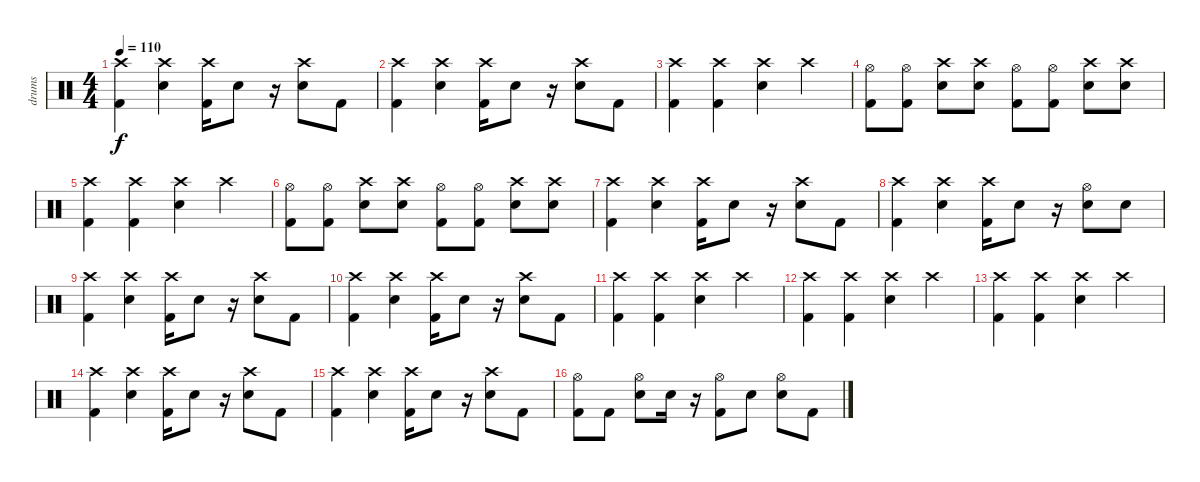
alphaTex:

\track ("drums" "drums") {instrument percussion}
\staff {score}
\articulation defaults
\ts (4 4)
\tempo 110
\clef neutral
\ks c
("Crash high (hit)" "Kick (hit) 2").4{dy f} ("Crash high (hit)" "Snare (hit) 2").4 ("Crash high (hit)" "Kick (hit) 2").16 "Snare (hit) 2".8 r.16 ("Crash high (hit)" "Snare (hit) 2").8 "Kick (hit) 2".8 |
("Crash high (hit)" "Kick (hit) 2").4 ("Crash high (hit)" "Snare (hit) 2").4 ("Crash high (hit)" "Kick (hit) 2").16 "Snare (hit) 2".8 r.16 ("Crash high (hit)" "Snare (hit) 2").8 "Kick (hit) 2".8 |
("Crash high (hit)" "Kick (hit) 2").4 ("Crash high (hit)" "Kick (hit) 2").4 ("Crash high (hit)" "Snare (hit) 2").4 "Crash high (hit)".4 |
("Hi-Hat (open)" "Kick (hit) 2").8 ("Hi-Hat (open)" "Kick (hit) 2").8 ("Crash high (hit)" "Snare (hit) 2").8 ("Crash high (hit)" "Snare (hit) 2").8 ("Hi-Hat (open)" "Kick (hit) 2").8 ("Hi-Hat (open)" "Kick (hit) 2").8 ("Crash high (hit)" "Snare (hit) 2").8 ("Crash high (hit)" "Snare (hit) 2").8 |
("Crash high (hit)" "Kick (hit) 2").4 ("Crash high (hit)" "Kick (hit) 2").4 ("Crash high (hit)" "Snare (hit) 2").4 "Crash high (hit)".4 |
("Hi-Hat (open)" "Kick (hit) 2").8 ("Hi-Hat (open)" "Kick (hit) 2").8 ("Crash high (hit)" "Snare (hit) 2").8 ("Crash high (hit)" "Snare (hit) 2").8 ("Hi-Hat (open)" "Kick (hit) 2").8 ("Hi-Hat (open)" "Kick (hit) 2").8 ("Crash high (hit)" "Snare (hit) 2").8 ("Crash high (hit)" "Snare (hit) 2").8 |
("Crash high (hit)" "Kick (hit) 2").4 ("Crash high (hit)" "Snare (hit) 2").4 ("Crash high (hit)" "Kick (hit) 2").16 "Snare (hit) 2".8 r.16 ("Crash high (hit)" "Snare (hit) 2").8 "Kick (hit) 2".8 |
("Crash high (hit)" "Kick (hit) 2").4 ("Crash high (hit)" "Snare (hit) 2").4 ("Crash high (hit)" "Kick (hit) 2").16 "Snare (hit) 2".8 r.16 ("Hi-Hat (open)" "Snare (hit) 2").8 "Snare (hit) 2".8 |
("Crash high (hit)" "Kick (hit) 2").4 ("Crash high (hit)" "Snare (hit) 2").4 ("Crash high (hit)" "Kick (hit) 2").16 "Snare (hit) 2".8 r.16 ("Crash high (hit)" "Snare (hit) 2").8 "Kick (hit) 2".8 |
("Crash high (hit)" "Kick (hit) 2").4 ("Crash high (hit)" "Snare (hit) 2").4 ("Crash high (hit)" "Kick (hit) 2").16 "Snare (hit) 2".8 r.16 ("Crash high (hit)" "Snare (hit) 2").8 "Kick (hit) 2".8 |
("Crash high (hit)" "Kick (hit) 2").4 ("Crash high (hit)" "Kick (hit) 2").4 ("Crash high (hit)" "Snare (hit) 2").4 "Crash high (hit)".4 |
("Crash high (hit)" "Kick (hit) 2").4 ("Crash high (hit)" "Kick (hit) 2").4 ("Crash high (hit)" "Snare (hit) 2").4 "Crash high (hit)".4 |
("Crash high (hit)" "Kick (hit) 2").4 ("Crash high (hit)" "Kick (hit) 2").4 ("Crash high (hit)" "Snare (hit) 2").4 "Crash high (hit)".4 |
("Crash high (hit)" "Kick (hit) 2").4 ("Crash high (hit)" "Snare (hit) 2").4 ("Crash high (hit)" "Kick (hit) 2").16 "Snare (hit) 2".8 r.16 ("Crash high (hit)" "Snare (hit) 2").8 "Kick (hit) 2".8 |
("Crash high (hit)" "Kick (hit) 2").4 ("Crash high (hit)" "Snare (hit) 2").4 ("Crash high (hit)" "Kick (hit) 2").16 "Snare (hit) 2".8 r.16 ("Crash high (hit)" "Snare (hit) 2").8 "Kick (hit) 2".8 |
("Hi-Hat (open)" "Kick (hit) 2").8 "Kick (hit) 2".8 ("Hi-Hat (open)" "Snare (hit) 2").8 "Snare (hit) 2".16 r.16 ("Hi-Hat (open)" "Kick (hit) 2").8 "Snare (hit) 2".8 ("Hi-Hat (open)" "Snare (hit) 2").8 "Kick (hit) 2".8
